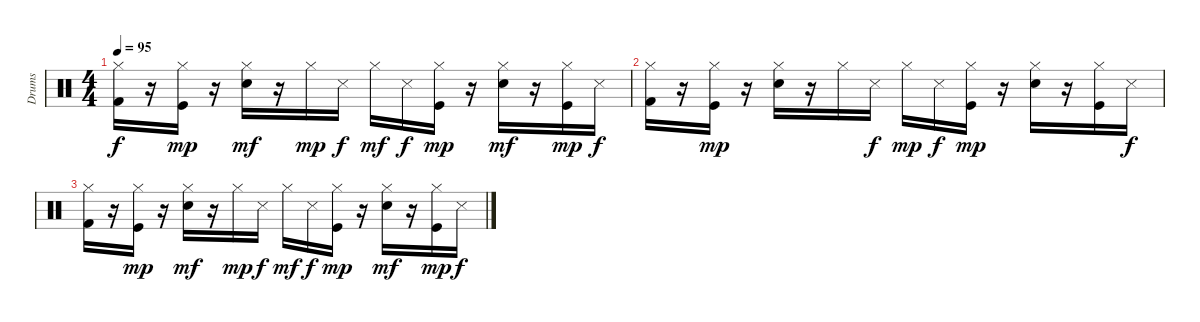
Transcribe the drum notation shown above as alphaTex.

\track ("Drums" "Drums") {instrument percussion}
\staff {score}
\articulation defaults
\ts (4 4)
\tempo 95
\clef neutral
\ks c
("Kick (hit) 2" "Hi-Hat (closed)").16{dy f} r.16 ("Kick (hit)" "Hi-Hat (closed)").16{dy mp} r.16 ("Snare (hit) 2" "Hi-Hat (closed)").16{dy mf} r.16 "Hi-Hat (closed)".16{dy mp} "Snare (side stick) 3".16{dy f} "Hi-Hat (closed)".16{dy mf} "Snare (side stick) 3".16{dy f} ("Kick (hit)" "Hi-Hat (closed)").16{dy mp} r.16 ("Snare (hit) 2" "Hi-Hat (closed)").16{dy mf} r.16 ("Kick (hit)" "Hi-Hat (closed)").16{dy mp} "Snare (side stick) 3".16{dy f} |
("Kick (hit) 2" "Hi-Hat (closed)").16 r.16 ("Kick (hit)" "Hi-Hat (closed)").16{dy mp} r.16 ("Snare (hit) 2" "Hi-Hat (closed)").16 r.16 "Hi-Hat (closed)".16 "Snare (side stick) 3".16{dy f} "Hi-Hat (closed)".16{dy mp} "Snare (side stick) 3".16{dy f} ("Kick (hit)" "Hi-Hat (closed)").16{dy mp} r.16 ("Snare (hit) 2" "Hi-Hat (closed)").16 r.16 ("Kick (hit)" "Hi-Hat (closed)").16 "Snare (side stick) 3".16{dy f} |
("Kick (hit) 2" "Hi-Hat (closed)").16 r.16 ("Kick (hit)" "Hi-Hat (closed)").16{dy mp} r.16 ("Snare (hit) 2" "Hi-Hat (closed)").16{dy mf} r.16 "Hi-Hat (closed)".16{dy mp} "Snare (side stick) 3".16{dy f} "Hi-Hat (closed)".16{dy mf} "Snare (side stick) 3".16{dy f} ("Kick (hit)" "Hi-Hat (closed)").16{dy mp} r.16 ("Snare (hit) 2" "Hi-Hat (closed)").16{dy mf} r.16 ("Kick (hit)" "Hi-Hat (closed)").16{dy mp} "Snare (side stick) 3".16{dy f}
